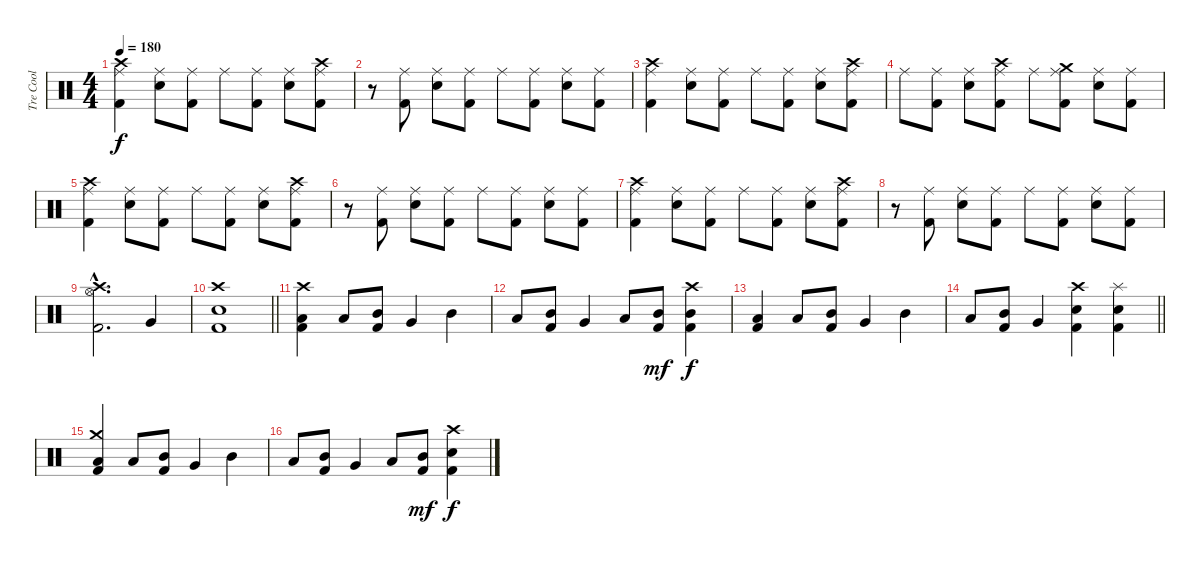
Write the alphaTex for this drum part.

\track ("Tre Cool" "Tre Cool") {instrument percussion}
\staff {score}
\articulation defaults
\ts (4 4)
\tempo 180
\clef neutral
\ks c
("Crash high (hit)" "Ride (middle)" "Kick (hit) 2").4{dy f} ("Ride (middle)" "Electric Snare (hit)").8 ("Ride (middle)" "Kick (hit) 2").8 "Ride (middle)".8 ("Ride (middle)" "Kick (hit) 2").8 ("Ride (middle)" "Electric Snare (hit)").8 ("Crash high (hit)" "Ride (middle)" "Kick (hit) 2").8 |
r.8 ("Ride (middle)" "Kick (hit) 2").8 ("Ride (middle)" "Electric Snare (hit)").8 ("Ride (middle)" "Kick (hit) 2").8 "Ride (middle)".8 ("Ride (middle)" "Kick (hit) 2").8 ("Ride (middle)" "Electric Snare (hit)").8 ("Ride (middle)" "Kick (hit) 2").8 |
("Crash high (hit)" "Ride (middle)" "Kick (hit) 2").4 ("Ride (middle)" "Electric Snare (hit)").8 ("Ride (middle)" "Kick (hit) 2").8 "Ride (middle)".8 ("Ride (middle)" "Kick (hit) 2").8 ("Ride (middle)" "Electric Snare (hit)").8 ("Crash high (hit)" "Ride (middle)" "Kick (hit) 2").8 |
"Ride (middle)".8 ("Ride (middle)" "Kick (hit) 2").8 ("Ride (middle)" "Electric Snare (hit)").8 ("Crash high (hit)" "Ride (middle)" "Kick (hit) 2").8 "Ride (middle)".8 ("Crash medium (hit)" "Ride (middle)" "Kick (hit) 2").8 ("Ride (middle)" "Electric Snare (hit)").8 ("Ride (middle)" "Kick (hit) 2").8 |
("Crash high (hit)" "Ride (middle)" "Kick (hit) 2").4 ("Ride (middle)" "Electric Snare (hit)").8 ("Ride (middle)" "Kick (hit) 2").8 "Ride (middle)".8 ("Ride (middle)" "Kick (hit) 2").8 ("Ride (middle)" "Electric Snare (hit)").8 ("Crash high (hit)" "Ride (middle)" "Kick (hit) 2").8 |
r.8 ("Ride (middle)" "Kick (hit) 2").8 ("Ride (middle)" "Electric Snare (hit)").8 ("Ride (middle)" "Kick (hit) 2").8 "Ride (middle)".8 ("Ride (middle)" "Kick (hit) 2").8 ("Ride (middle)" "Electric Snare (hit)").8 ("Ride (middle)" "Kick (hit) 2").8 |
("Crash high (hit)" "Ride (middle)" "Kick (hit) 2").4 ("Ride (middle)" "Electric Snare (hit)").8 ("Ride (middle)" "Kick (hit) 2").8 "Ride (middle)".8 ("Ride (middle)" "Kick (hit) 2").8 ("Ride (middle)" "Electric Snare (hit)").8 ("Crash high (hit)" "Ride (middle)" "Kick (hit) 2").8 |
r.8 ("Ride (middle)" "Kick (hit) 2").8 ("Ride (middle)" "Electric Snare (hit)").8 ("Ride (middle)" "Kick (hit) 2").8 "Ride (middle)".8 ("Ride (middle)" "Kick (hit) 2").8 ("Ride (middle)" "Electric Snare (hit)").8 ("Ride (middle)" "Kick (hit) 2").8 |
("Crash high (hit)"{hac} "Hi-Hat (open)"{hac} "Kick (hit) 2"{hac}).2{d} "Very Low Tom (hit)".4 |
\barLineRight lightlight
("Crash high (hit)" "Electric Snare (hit)" "Kick (hit) 2").1 |
("Crash high (hit)" "Low Tom (hit)" "Kick (hit) 2").4 "Low Tom (hit)".8 ("Mid Tom (hit)" "Kick (hit) 2").8 "Very Low Tom (hit)".4 "Mid Tom (hit)".4 |
"Low Tom (hit)".8 ("Mid Tom (hit)" "Kick (hit) 2").8 "Very Low Tom (hit)".4 "Low Tom (hit)".8 ("Mid Tom (hit)" "Kick (hit) 2").8{dy mf} ("Crash high (hit)" "Mid Tom (hit)" "Kick (hit) 2").4{dy f} |
("Low Tom (hit)" "Kick (hit) 2").4 "Low Tom (hit)".8 ("Mid Tom (hit)" "Kick (hit) 2").8 "Very Low Tom (hit)".4 "Mid Tom (hit)".4 |
\barLineRight lightlight "Low Tom (hit)".8
("Mid Tom (hit)" "Kick (hit) 2").8 "Very Low Tom (hit)".4 ("Crash high (hit)" "Electric Snare (hit)" "Kick (hit) 2").4 ("Splash (hit)" "Electric Snare (hit)" "Kick (hit) 2").4 |
("Crash medium (hit)" "Low Tom (hit)" "Kick (hit) 2").4 "Low Tom (hit)".8 ("Mid Tom (hit)" "Kick (hit) 2").8 "Very Low Tom (hit)".4 "Mid Tom (hit)".4 |
"Low Tom (hit)".8 ("Mid Tom (hit)" "Kick (hit) 2").8 "Very Low Tom (hit)".4 "Low Tom (hit)".8 ("Mid Tom (hit)" "Kick (hit) 2").8{dy mf} ("Crash high (hit)" "Electric Snare (hit)" "Kick (hit) 2").4{dy f}
